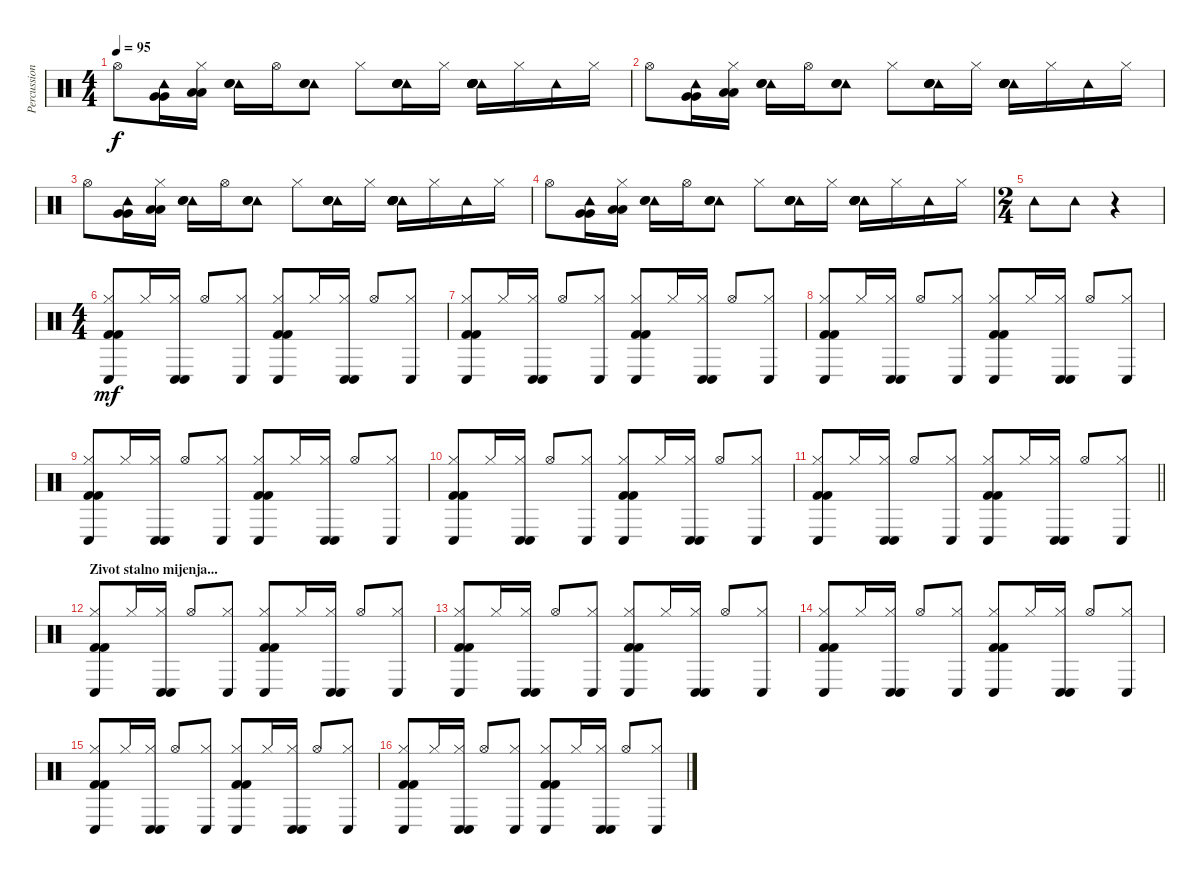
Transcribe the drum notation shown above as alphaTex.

\track ("Percussion" "Percussion") {instrument percussion}
\staff {score}
\articulation defaults
\ts (4 4)
\tempo 95
\clef neutral
\ks c "Hi-Hat (open)".8{dy f}
("Tambourine (hit)" "Very Low Tom (hit)" "Very Low Tom (hit)").16 ("Hi-Hat (closed)" "Low Floor Tom (hit)" "Low Floor Tom (hit)").16 ("Tambourine (hit)" "Electric Snare (hit)" "Electric Snare (hit)").16 "Hi-Hat (open)".16 ("Tambourine (hit)" "Snare (hit) 2" "Snare (hit) 2").8 "Hi-Hat (closed)".8 ("Tambourine (hit)" "Hand Clap (hit)" "Hand Clap (hit)" "Hand Clap (hit)").16 "Hi-Hat (closed)".16 ("Tambourine (hit)" "Snare (hit) 2" "Snare (hit) 2" "Hand Clap (hit)" "Hand Clap (hit)" "Hand Clap (hit)").16 "Hi-Hat (closed)".16 "Tambourine (hit)".16 "Hi-Hat (closed)".16 |
"Hi-Hat (open)".8 ("Tambourine (hit)" "Very Low Tom (hit)" "Very Low Tom (hit)").16 ("Hi-Hat (closed)" "Low Floor Tom (hit)" "Low Floor Tom (hit)").16 ("Tambourine (hit)" "Electric Snare (hit)" "Electric Snare (hit)").16 "Hi-Hat (open)".16 ("Tambourine (hit)" "Snare (hit) 2" "Snare (hit) 2").8 "Hi-Hat (closed)".8 ("Tambourine (hit)" "Hand Clap (hit)" "Hand Clap (hit)" "Hand Clap (hit)").16 "Hi-Hat (closed)".16 ("Tambourine (hit)" "Snare (hit) 2" "Snare (hit) 2" "Hand Clap (hit)" "Hand Clap (hit)" "Hand Clap (hit)").16 "Hi-Hat (closed)".16 "Tambourine (hit)".16 "Hi-Hat (closed)".16 |
"Hi-Hat (open)".8 ("Tambourine (hit)" "Very Low Tom (hit)" "Very Low Tom (hit)").16 ("Hi-Hat (closed)" "Low Floor Tom (hit)" "Low Floor Tom (hit)").16 ("Tambourine (hit)" "Electric Snare (hit)" "Electric Snare (hit)").16 "Hi-Hat (open)".16 ("Tambourine (hit)" "Snare (hit) 2" "Snare (hit) 2").8 "Hi-Hat (closed)".8 ("Tambourine (hit)" "Hand Clap (hit)" "Hand Clap (hit)" "Hand Clap (hit)").16 "Hi-Hat (closed)".16 ("Tambourine (hit)" "Snare (hit) 2" "Snare (hit) 2" "Hand Clap (hit)" "Hand Clap (hit)" "Hand Clap (hit)").16 "Hi-Hat (closed)".16 "Tambourine (hit)".16 "Hi-Hat (closed)".16 |
"Hi-Hat (open)".8 ("Tambourine (hit)" "Very Low Tom (hit)" "Very Low Tom (hit)").16 ("Hi-Hat (closed)" "Low Floor Tom (hit)" "Low Floor Tom (hit)").16 ("Tambourine (hit)" "Electric Snare (hit)" "Electric Snare (hit)").16 "Hi-Hat (open)".16 ("Tambourine (hit)" "Snare (hit) 2" "Snare (hit) 2").8 "Hi-Hat (closed)".8 ("Tambourine (hit)" "Hand Clap (hit)" "Hand Clap (hit)" "Hand Clap (hit)").16 "Hi-Hat (closed)".16 ("Tambourine (hit)" "Snare (hit) 2" "Snare (hit) 2" "Hand Clap (hit)" "Hand Clap (hit)" "Hand Clap (hit)").16 "Hi-Hat (closed)".16 "Tambourine (hit)".16 "Hi-Hat (closed)".16 |
\ts (2 4)
"Tambourine (hit)".8 "Tambourine (hit)".8 r.4 |
\ts (4 4)
("Hi-Hat (closed)" "Conga low (hit)" "Kick (hit) 2" "Kick (hit) 2").8{dy mf} "Hi-Hat (closed)".16 ("Hi-Hat (closed)" "Conga low (hit)" "Conga low (hit)").16 "Hi-Hat (open)".8 ("Hi-Hat (closed)" "Conga low (hit)").8 ("Hi-Hat (closed)" "Conga low (hit)" "Kick (hit) 2" "Kick (hit) 2").8 "Hi-Hat (closed)".16 ("Hi-Hat (closed)" "Conga low (hit)" "Conga low (hit)").16 "Hi-Hat (open)".8 ("Hi-Hat (closed)" "Conga low (hit)").8 |
("Hi-Hat (closed)" "Conga low (hit)" "Kick (hit) 2" "Kick (hit) 2").8 "Hi-Hat (closed)".16 ("Hi-Hat (closed)" "Conga low (hit)" "Conga low (hit)").16 "Hi-Hat (open)".8 ("Hi-Hat (closed)" "Conga low (hit)").8 ("Hi-Hat (closed)" "Conga low (hit)" "Kick (hit) 2" "Kick (hit) 2").8 "Hi-Hat (closed)".16 ("Hi-Hat (closed)" "Conga low (hit)" "Conga low (hit)").16 "Hi-Hat (open)".8 ("Hi-Hat (closed)" "Conga low (hit)").8 |
("Hi-Hat (closed)" "Conga low (hit)" "Kick (hit) 2" "Kick (hit) 2").8 "Hi-Hat (closed)".16 ("Hi-Hat (closed)" "Conga low (hit)" "Conga low (hit)").16 "Hi-Hat (open)".8 ("Hi-Hat (closed)" "Conga low (hit)").8 ("Hi-Hat (closed)" "Conga low (hit)" "Kick (hit) 2" "Kick (hit) 2").8 "Hi-Hat (closed)".16 ("Hi-Hat (closed)" "Conga low (hit)" "Conga low (hit)").16 "Hi-Hat (open)".8 ("Hi-Hat (closed)" "Conga low (hit)").8 |
("Hi-Hat (closed)" "Conga low (hit)" "Kick (hit) 2" "Kick (hit) 2").8 "Hi-Hat (closed)".16 ("Hi-Hat (closed)" "Conga low (hit)" "Conga low (hit)").16 "Hi-Hat (open)".8 ("Hi-Hat (closed)" "Conga low (hit)").8 ("Hi-Hat (closed)" "Conga low (hit)" "Kick (hit) 2" "Kick (hit) 2").8 "Hi-Hat (closed)".16 ("Hi-Hat (closed)" "Conga low (hit)" "Conga low (hit)").16 "Hi-Hat (open)".8 ("Hi-Hat (closed)" "Conga low (hit)").8 |
("Hi-Hat (closed)" "Conga low (hit)" "Kick (hit) 2" "Kick (hit) 2").8 "Hi-Hat (closed)".16 ("Hi-Hat (closed)" "Conga low (hit)" "Conga low (hit)").16 "Hi-Hat (open)".8 ("Hi-Hat (closed)" "Conga low (hit)").8 ("Hi-Hat (closed)" "Conga low (hit)" "Kick (hit) 2" "Kick (hit) 2").8 "Hi-Hat (closed)".16 ("Hi-Hat (closed)" "Conga low (hit)" "Conga low (hit)").16 "Hi-Hat (open)".8 ("Hi-Hat (closed)" "Conga low (hit)").8 |
\barLineRight lightlight
("Hi-Hat (closed)" "Conga low (hit)" "Kick (hit) 2" "Kick (hit) 2").8 "Hi-Hat (closed)".16 ("Hi-Hat (closed)" "Conga low (hit)" "Conga low (hit)").16 "Hi-Hat (open)".8 ("Hi-Hat (closed)" "Conga low (hit)").8 ("Hi-Hat (closed)" "Conga low (hit)" "Kick (hit) 2" "Kick (hit) 2").8 "Hi-Hat (closed)".16 ("Hi-Hat (closed)" "Conga low (hit)" "Conga low (hit)").16 "Hi-Hat (open)".8 ("Hi-Hat (closed)" "Conga low (hit)").8 |
\section ("" "Zivot stalno mijenja...")
("Hi-Hat (closed)" "Conga low (hit)" "Kick (hit) 2" "Kick (hit) 2").8 "Hi-Hat (closed)".16 ("Hi-Hat (closed)" "Conga low (hit)" "Conga low (hit)").16 "Hi-Hat (open)".8 ("Hi-Hat (closed)" "Conga low (hit)").8 ("Hi-Hat (closed)" "Conga low (hit)" "Kick (hit) 2" "Kick (hit) 2").8 "Hi-Hat (closed)".16 ("Hi-Hat (closed)" "Conga low (hit)" "Conga low (hit)").16 "Hi-Hat (open)".8 ("Hi-Hat (closed)" "Conga low (hit)").8 |
("Hi-Hat (closed)" "Conga low (hit)" "Kick (hit) 2" "Kick (hit) 2").8 "Hi-Hat (closed)".16 ("Hi-Hat (closed)" "Conga low (hit)" "Conga low (hit)").16 "Hi-Hat (open)".8 ("Hi-Hat (closed)" "Conga low (hit)").8 ("Hi-Hat (closed)" "Conga low (hit)" "Kick (hit) 2" "Kick (hit) 2").8 "Hi-Hat (closed)".16 ("Hi-Hat (closed)" "Conga low (hit)" "Conga low (hit)").16 "Hi-Hat (open)".8 ("Hi-Hat (closed)" "Conga low (hit)").8 |
("Hi-Hat (closed)" "Conga low (hit)" "Kick (hit) 2" "Kick (hit) 2").8 "Hi-Hat (closed)".16 ("Hi-Hat (closed)" "Conga low (hit)" "Conga low (hit)").16 "Hi-Hat (open)".8 ("Hi-Hat (closed)" "Conga low (hit)").8 ("Hi-Hat (closed)" "Conga low (hit)" "Kick (hit) 2" "Kick (hit) 2").8 "Hi-Hat (closed)".16 ("Hi-Hat (closed)" "Conga low (hit)" "Conga low (hit)").16 "Hi-Hat (open)".8 ("Hi-Hat (closed)" "Conga low (hit)").8 |
("Hi-Hat (closed)" "Conga low (hit)" "Kick (hit) 2" "Kick (hit) 2").8 "Hi-Hat (closed)".16 ("Hi-Hat (closed)" "Conga low (hit)" "Conga low (hit)").16 "Hi-Hat (open)".8 ("Hi-Hat (closed)" "Conga low (hit)").8 ("Hi-Hat (closed)" "Conga low (hit)" "Kick (hit) 2" "Kick (hit) 2").8 "Hi-Hat (closed)".16 ("Hi-Hat (closed)" "Conga low (hit)" "Conga low (hit)").16 "Hi-Hat (open)".8 ("Hi-Hat (closed)" "Conga low (hit)").8 |
("Hi-Hat (closed)" "Conga low (hit)" "Kick (hit) 2" "Kick (hit) 2").8 "Hi-Hat (closed)".16 ("Hi-Hat (closed)" "Conga low (hit)" "Conga low (hit)").16 "Hi-Hat (open)".8 ("Hi-Hat (closed)" "Conga low (hit)").8 ("Hi-Hat (closed)" "Conga low (hit)" "Kick (hit) 2" "Kick (hit) 2").8 "Hi-Hat (closed)".16 ("Hi-Hat (closed)" "Conga low (hit)" "Conga low (hit)").16 "Hi-Hat (open)".8 ("Hi-Hat (closed)" "Conga low (hit)").8
